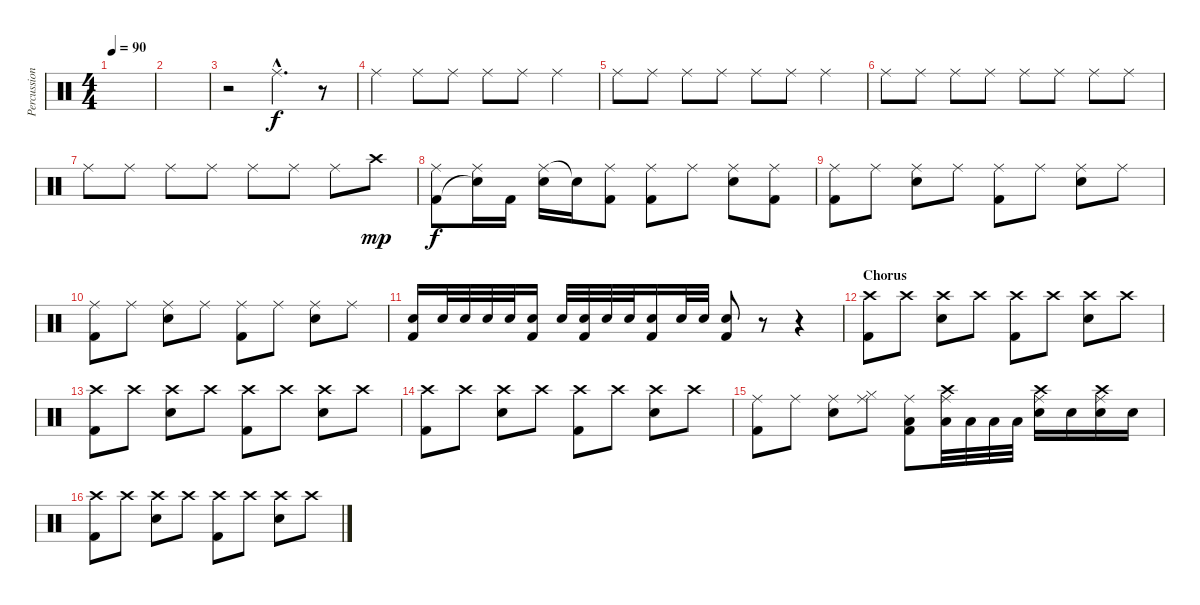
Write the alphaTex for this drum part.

\track ("Percussion" "Percussion") {instrument percussion}
\staff {score}
\articulation defaults
\ts (4 4)
\tempo 90
\clef neutral
\ks c
|
|
r.2 "Ride (middle)"{hac}.4{d} r.8 |
"Ride (middle)".4 "Ride (middle)".8 "Ride (middle)".8 "Ride (middle)".8 "Ride (middle)".8 "Ride (middle)".4 |
"Ride (middle)".8 "Ride (middle)".8 "Ride (middle)".8 "Ride (middle)".8 "Ride (middle)".8 "Ride (middle)".8 "Ride (middle)".4 |
"Ride (middle)".8 "Ride (middle)".8 "Ride (middle)".8 "Ride (middle)".8 "Ride (middle)".8 "Ride (middle)".8 "Ride (middle)".8 "Ride (middle)".8 |
"Ride (middle)".8 "Ride (middle)".8 "Ride (middle)".8 "Ride (middle)".8 "Ride (middle)".8 "Ride (middle)".8 "Ride (middle)".8 "Crash high (hit)".8{dy mp} |
("Ride (middle)" "Kick (hit) 2").8{dy f} ("Ride (middle)" "Snare (hit)"{t}).16 "Kick (hit) 2".16 ("Ride (middle)" "Electric Snare (hit)").16 "Snare (hit)"{t}.16 ("Ride (middle)" "Kick (hit) 2").8 ("Ride (middle)" "Kick (hit) 2").8 "Ride (middle)".8 ("Ride (middle)" "Electric Snare (hit)").8 ("Ride (middle)" "Kick (hit) 2").8 |
("Ride (middle)" "Kick (hit) 2").8 "Ride (middle)".8 ("Ride (middle)" "Electric Snare (hit)").8 "Ride (middle)".8 ("Ride (middle)" "Kick (hit) 2").8 "Ride (middle)".8 ("Ride (middle)" "Electric Snare (hit)").8 "Ride (middle)".8 |
("Ride (middle)" "Kick (hit) 2").8 "Ride (middle)".8 ("Ride (middle)" "Electric Snare (hit)").8 "Ride (middle)".8 ("Ride (middle)" "Kick (hit) 2").8 "Ride (middle)".8 ("Ride (middle)" "Electric Snare (hit)").8 "Ride (middle)".8 |
("Electric Snare (hit)" "Kick (hit) 2").16 "Electric Snare (hit)".32 "Electric Snare (hit)".32 "Electric Snare (hit)".32 "Electric Snare (hit)".32 ("Electric Snare (hit)" "Kick (hit) 2").16 "Electric Snare (hit)".32 ("Electric Snare (hit)" "Kick (hit) 2").32 "Electric Snare (hit)".32 "Electric Snare (hit)".32 ("Electric Snare (hit)" "Kick (hit) 2").16 "Electric Snare (hit)".32 "Electric Snare (hit)".32 ("Electric Snare (hit)" "Kick (hit) 2").8 r.8 r.4 |
\section ("" "Chorus")
("Crash high (hit)" "Kick (hit) 2").8 "Crash high (hit)".8 ("Crash high (hit)" "Electric Snare (hit)").8 "Crash high (hit)".8 ("Crash high (hit)" "Kick (hit) 2").8 "Crash high (hit)".8 ("Crash high (hit)" "Electric Snare (hit)").8 "Crash high (hit)".8 |
("Crash high (hit)" "Kick (hit) 2").8 "Crash high (hit)".8 ("Crash high (hit)" "Electric Snare (hit)").8 "Crash high (hit)".8 ("Crash high (hit)" "Kick (hit) 2").8 "Crash high (hit)".8 ("Crash high (hit)" "Electric Snare (hit)").8 "Crash high (hit)".8 |
("Crash high (hit)" "Kick (hit) 2").8 "Crash high (hit)".8 ("Crash high (hit)" "Electric Snare (hit)").8 "Crash high (hit)".8 ("Crash high (hit)" "Kick (hit) 2").8 "Crash high (hit)".8 ("Crash high (hit)" "Electric Snare (hit)").8 "Crash high (hit)".8 |
("Ride (middle)" "Kick (hit) 2").8 "Ride (middle)".8 ("Ride (middle)" "Electric Snare (hit)").8 ("Ride (middle)" "Hi-Hat (closed)").8 ("Ride (middle)" "Low Tom (hit)" "Kick (hit) 2").8 ("Crash high (hit)" "Ride (middle)" "Low Tom (hit)").32 "Low Tom (hit)".32 "Low Tom (hit)".32 "Low Tom (hit)".32 ("Crash high (hit)" "Ride (middle)" "Electric Snare (hit)").16 "Electric Snare (hit)".16 ("Crash high (hit)" "Ride (middle)" "Electric Snare (hit)").16 "Electric Snare (hit)".16 |
("Crash high (hit)" "Kick (hit) 2").8 "Crash high (hit)".8 ("Crash high (hit)" "Electric Snare (hit)").8 "Crash high (hit)".8 ("Crash high (hit)" "Kick (hit) 2").8 "Crash high (hit)".8 ("Crash high (hit)" "Electric Snare (hit)").8 "Crash high (hit)".8
